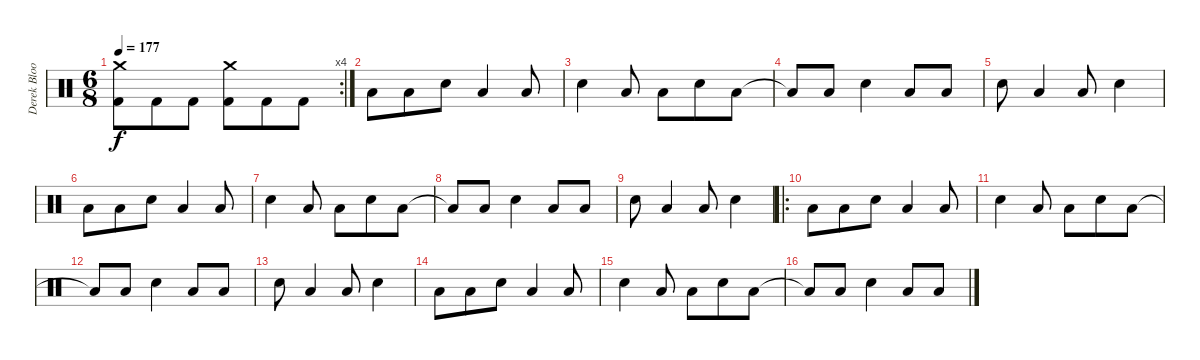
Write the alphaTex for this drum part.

\track ("Derek Bloom" "Derek Bloo") {instrument percussion}
\staff {score}
\articulation defaults
\rc 4
\ts (6 8)
\tempo 177
\clef neutral
\ks c
("Crash medium (hit)" "Kick (hit) 2").8{dy f} "Kick (hit) 2".8 "Kick (hit) 2".8 ("Crash medium (hit)" "Kick (hit) 2").8 "Kick (hit) 2".8 "Kick (hit) 2".8 |
"Low Floor Tom (hit)".8 "Low Floor Tom (hit)".8 "Electric Snare (hit)".8 "Low Floor Tom (hit)".4 "Low Floor Tom (hit)".8 |
"Electric Snare (hit)".4 "Low Floor Tom (hit)".8 "Low Floor Tom (hit)".8 "Electric Snare (hit)".8 "Low Floor Tom (hit)".8 |
"Low Floor Tom (hit)"{t}.8 "Low Floor Tom (hit)".8 "Electric Snare (hit)".4 "Low Floor Tom (hit)".8 "Low Floor Tom (hit)".8 |
"Electric Snare (hit)".8 "Low Floor Tom (hit)".4 "Low Floor Tom (hit)".8 "Electric Snare (hit)".4 |
"Low Floor Tom (hit)".8 "Low Floor Tom (hit)".8 "Electric Snare (hit)".8 "Low Floor Tom (hit)".4 "Low Floor Tom (hit)".8 |
"Electric Snare (hit)".4 "Low Floor Tom (hit)".8 "Low Floor Tom (hit)".8 "Electric Snare (hit)".8 "Low Floor Tom (hit)".8 |
"Low Floor Tom (hit)"{t}.8 "Low Floor Tom (hit)".8 "Electric Snare (hit)".4 "Low Floor Tom (hit)".8 "Low Floor Tom (hit)".8 |
"Electric Snare (hit)".8 "Low Floor Tom (hit)".4 "Low Floor Tom (hit)".8 "Electric Snare (hit)".4 |
\ro "Low Floor Tom (hit)".8 "Low Floor Tom (hit)".8 "Electric Snare (hit)".8 "Low Floor Tom (hit)".4 "Low Floor Tom (hit)".8
|
"Electric Snare (hit)".4 "Low Floor Tom (hit)".8 "Low Floor Tom (hit)".8 "Electric Snare (hit)".8 "Low Floor Tom (hit)".8 |
"Low Floor Tom (hit)"{t}.8 "Low Floor Tom (hit)".8 "Electric Snare (hit)".4 "Low Floor Tom (hit)".8 "Low Floor Tom (hit)".8 |
"Electric Snare (hit)".8 "Low Floor Tom (hit)".4 "Low Floor Tom (hit)".8 "Electric Snare (hit)".4 |
"Low Floor Tom (hit)".8 "Low Floor Tom (hit)".8 "Electric Snare (hit)".8 "Low Floor Tom (hit)".4 "Low Floor Tom (hit)".8 |
"Electric Snare (hit)".4 "Low Floor Tom (hit)".8 "Low Floor Tom (hit)".8 "Electric Snare (hit)".8 "Low Floor Tom (hit)".8 |
"Low Floor Tom (hit)"{t}.8 "Low Floor Tom (hit)".8 "Electric Snare (hit)".4 "Low Floor Tom (hit)".8 "Low Floor Tom (hit)".8
